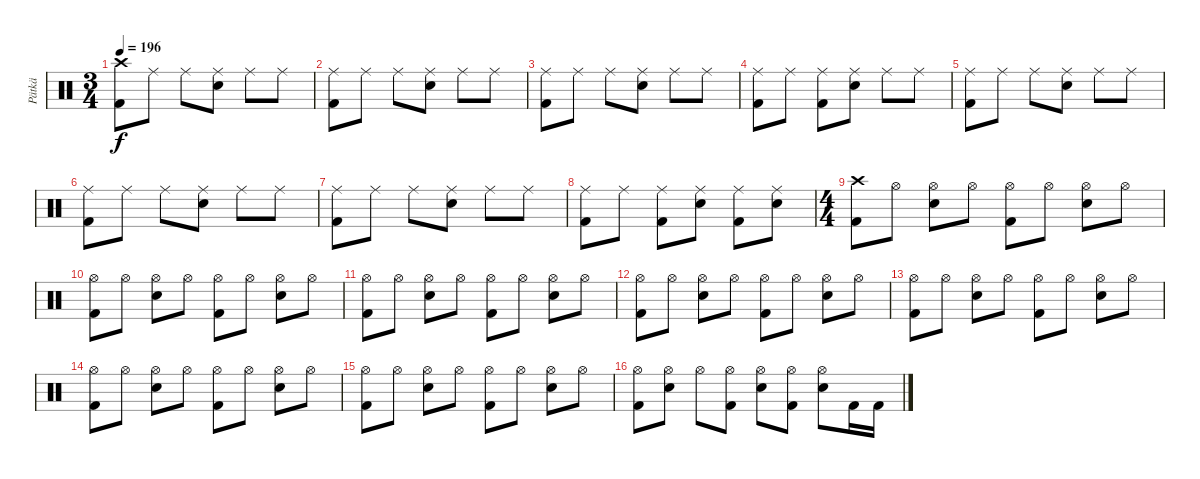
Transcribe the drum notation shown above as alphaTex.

\track ("Pätkä" "Pätkä") {instrument percussion}
\staff {score}
\articulation defaults
\ts (3 4)
\tempo 196
\clef neutral
\ks c
("Crash high (hit)" "Kick (hit) 2").8{dy f} "Ride (middle)".8 "Ride (middle)".8 ("Ride (middle)" "Electric Snare (hit)").8 "Ride (middle)".8 "Ride (middle)".8 |
("Ride (middle)" "Kick (hit) 2").8 "Ride (middle)".8 "Ride (middle)".8 ("Ride (middle)" "Electric Snare (hit)").8 "Ride (middle)".8 "Ride (middle)".8 |
("Ride (middle)" "Kick (hit) 2").8 "Ride (middle)".8 "Ride (middle)".8 ("Ride (middle)" "Electric Snare (hit)").8 "Ride (middle)".8 "Ride (middle)".8 |
("Ride (middle)" "Kick (hit) 2").8 "Ride (middle)".8 ("Ride (middle)" "Kick (hit) 2").8 ("Ride (middle)" "Electric Snare (hit)").8 "Ride (middle)".8 "Ride (middle)".8 |
("Ride (middle)" "Kick (hit) 2").8 "Ride (middle)".8 "Ride (middle)".8 ("Ride (middle)" "Electric Snare (hit)").8 "Ride (middle)".8 "Ride (middle)".8 |
("Ride (middle)" "Kick (hit) 2").8 "Ride (middle)".8 "Ride (middle)".8 ("Ride (middle)" "Electric Snare (hit)").8 "Ride (middle)".8 "Ride (middle)".8 |
("Ride (middle)" "Kick (hit) 2").8 "Ride (middle)".8 "Ride (middle)".8 ("Ride (middle)" "Electric Snare (hit)").8 "Ride (middle)".8 "Ride (middle)".8 |
("Ride (middle)" "Kick (hit) 2").8 "Ride (middle)".8 ("Ride (middle)" "Kick (hit) 2").8 ("Ride (middle)" "Electric Snare (hit)").8 ("Ride (middle)" "Kick (hit) 2").8 ("Ride (middle)" "Electric Snare (hit)").8 |
\ts (4 4)
("Crash high (hit)" "Kick (hit) 2").8 "Hi-Hat (open)".8 ("Hi-Hat (open)" "Electric Snare (hit)").8 "Hi-Hat (open)".8 ("Hi-Hat (open)" "Kick (hit) 2").8 "Hi-Hat (open)".8 ("Hi-Hat (open)" "Electric Snare (hit)").8 "Hi-Hat (open)".8 |
("Hi-Hat (open)" "Kick (hit) 2").8 "Hi-Hat (open)".8 ("Hi-Hat (open)" "Electric Snare (hit)").8 "Hi-Hat (open)".8 ("Hi-Hat (open)" "Kick (hit) 2").8 "Hi-Hat (open)".8 ("Hi-Hat (open)" "Electric Snare (hit)").8 "Hi-Hat (open)".8 |
("Hi-Hat (open)" "Kick (hit) 2").8 "Hi-Hat (open)".8 ("Hi-Hat (open)" "Electric Snare (hit)").8 "Hi-Hat (open)".8 ("Hi-Hat (open)" "Kick (hit) 2").8 "Hi-Hat (open)".8 ("Hi-Hat (open)" "Electric Snare (hit)").8 "Hi-Hat (open)".8 |
("Hi-Hat (open)" "Kick (hit) 2").8 "Hi-Hat (open)".8 ("Hi-Hat (open)" "Electric Snare (hit)").8 "Hi-Hat (open)".8 ("Hi-Hat (open)" "Kick (hit) 2").8 "Hi-Hat (open)".8 ("Hi-Hat (open)" "Electric Snare (hit)").8 "Hi-Hat (open)".8 |
("Hi-Hat (open)" "Kick (hit) 2").8 "Hi-Hat (open)".8 ("Hi-Hat (open)" "Electric Snare (hit)").8 "Hi-Hat (open)".8 ("Hi-Hat (open)" "Kick (hit) 2").8 "Hi-Hat (open)".8 ("Hi-Hat (open)" "Electric Snare (hit)").8 "Hi-Hat (open)".8 |
("Hi-Hat (open)" "Kick (hit) 2").8 "Hi-Hat (open)".8 ("Hi-Hat (open)" "Electric Snare (hit)").8 "Hi-Hat (open)".8 ("Hi-Hat (open)" "Kick (hit) 2").8 "Hi-Hat (open)".8 ("Hi-Hat (open)" "Electric Snare (hit)").8 "Hi-Hat (open)".8 |
("Hi-Hat (open)" "Kick (hit) 2").8 "Hi-Hat (open)".8 ("Hi-Hat (open)" "Electric Snare (hit)").8 "Hi-Hat (open)".8 ("Hi-Hat (open)" "Kick (hit) 2").8 "Hi-Hat (open)".8 ("Hi-Hat (open)" "Electric Snare (hit)").8 "Hi-Hat (open)".8 |
("Hi-Hat (open)" "Kick (hit) 2").8 ("Hi-Hat (open)" "Electric Snare (hit)").8 "Hi-Hat (open)".8 ("Hi-Hat (open)" "Kick (hit) 2").8 ("Hi-Hat (open)" "Electric Snare (hit)").8 ("Hi-Hat (open)" "Kick (hit) 2").8 ("Hi-Hat (open)" "Electric Snare (hit)").8 "Kick (hit) 2".16 "Kick (hit) 2".16
